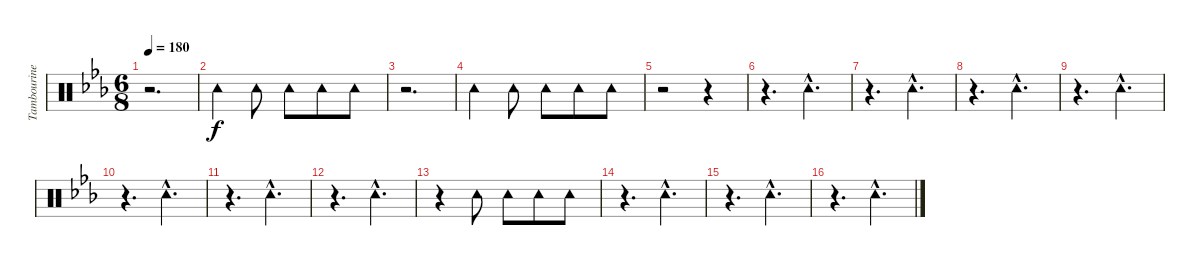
\track ("Tambourine" "Tambourine") {instrument percussion}
\staff {score}
\articulation defaults
\ts (6 8)
\tempo 180
\clef neutral
\ks cminor
r.2{d dy f} |
"Tambourine (hit)".4 "Tambourine (hit)".8 "Tambourine (hit)".8 "Tambourine (hit)".8 "Tambourine (hit)".8 |
r.2{d} |
"Tambourine (hit)".4 "Tambourine (hit)".8 "Tambourine (hit)".8 "Tambourine (hit)".8 "Tambourine (hit)".8 |
r.2 r.4 |
r.4{d} "Tambourine (hit)"{hac}.4{d} |
r.4{d} "Tambourine (hit)"{hac}.4{d} |
r.4{d} "Tambourine (hit)"{hac}.4{d} |
r.4{d} "Tambourine (hit)"{hac}.4{d} |
r.4{d} "Tambourine (hit)"{hac}.4{d} |
r.4{d} "Tambourine (hit)"{hac}.4{d} |
r.4{d} "Tambourine (hit)"{hac}.4{d} |
r.4 "Tambourine (hit)".8 "Tambourine (hit)".8 "Tambourine (hit)".8 "Tambourine (hit)".8 |
r.4{d} "Tambourine (hit)"{hac}.4{d} |
r.4{d} "Tambourine (hit)"{hac}.4{d} |
r.4{d} "Tambourine (hit)"{hac}.4{d}
